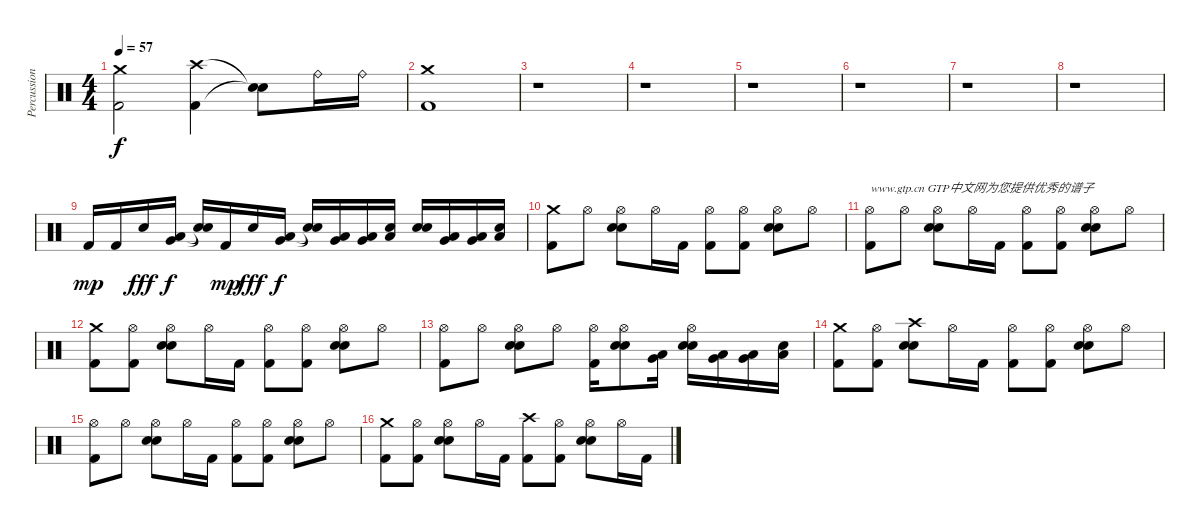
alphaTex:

\track ("Percussion" "Percussion") {instrument percussion}
\staff {score}
\articulation defaults
\ts (4 4)
\tempo 57
\clef neutral
\ks c
("Crash medium (hit)" "Kick (hit) 2").2{dy f} ("Crash high (hit)" "Kick (hit) 2").4 ("Snare (hit)"{t} "Snare (hit)"{t}).8 "Ride (bell)".16 "Ride (bell)".16 |
("Crash medium (hit)" "Kick (hit) 2").1 |
r.1 |
r.1 |
r.1 |
r.1 |
r.1 |
r.1 |
"Kick (hit) 2".16{dy mp} "Kick (hit) 2".16 "Metronome (bell)".16{dy fff} ("Low Tom (hit)" "Very Low Tom (hit)").16{dy f} ("Snare (hit)"{t} "Snare (hit)"{t}).16 "Kick (hit) 2".16{dy mp} "Metronome (bell)".16{dy fff} ("Low Tom (hit)" "Very Low Tom (hit)").16{dy f} ("Snare (hit)"{t} "Snare (hit)"{t}).16 ("Low Tom (hit)" "Very Low Tom (hit)").16 ("Very Low Tom (hit)" "Low Floor Tom (hit)").16 ("Low Floor Tom (hit)" "Snare (hit)").16 ("Electric Snare (hit)" "Metronome (bell)").16 ("Low Tom (hit)" "Very Low Tom (hit)").16 ("Very Low Tom (hit)" "Low Floor Tom (hit)").16 ("Low Floor Tom (hit)" "Snare (hit)").16 |
("Crash medium (hit)" "Kick (hit) 2").8 "Hi-Hat (open)".8 ("Hi-Hat (open)" "Electric Snare (hit)" "Metronome (bell)").8 "Hi-Hat (open)".16 "Kick (hit) 2".16 ("Hi-Hat (open)" "Kick (hit) 2").8 ("Hi-Hat (open)" "Kick (hit) 2").8 ("Hi-Hat (open)" "Electric Snare (hit)" "Metronome (bell)").8 "Hi-Hat (open)".8 |
("Hi-Hat (open)" "Kick (hit) 2").8{txt "www.gtp.cn GTP中文网为您提供优秀的谱子"} "Hi-Hat (open)".8 ("Hi-Hat (open)" "Electric Snare (hit)" "Metronome (bell)").8 "Hi-Hat (open)".16 "Kick (hit) 2".16 ("Hi-Hat (open)" "Kick (hit) 2").8 ("Hi-Hat (open)" "Kick (hit) 2").8 ("Hi-Hat (open)" "Electric Snare (hit)" "Metronome (bell)").8 "Hi-Hat (open)".8 |
("Crash medium (hit)" "Kick (hit) 2").8 ("Hi-Hat (open)" "Kick (hit) 2").8 ("Hi-Hat (open)" "Electric Snare (hit)" "Metronome (bell)").8 "Hi-Hat (open)".16 "Kick (hit) 2".16 ("Hi-Hat (open)" "Kick (hit) 2").8 ("Hi-Hat (open)" "Kick (hit) 2").8 ("Hi-Hat (open)" "Electric Snare (hit)" "Metronome (bell)").8 "Hi-Hat (open)".8 |
("Hi-Hat (open)" "Kick (hit) 2").8 "Hi-Hat (open)".8 ("Hi-Hat (open)" "Electric Snare (hit)" "Metronome (bell)").8 "Hi-Hat (open)".8 ("Hi-Hat (open)" "Kick (hit) 2").16 ("Hi-Hat (open)" "Electric Snare (hit)" "Metronome (bell)").8 ("Very Low Tom (hit)" "Low Floor Tom (hit)").16 ("Hi-Hat (open)" "Electric Snare (hit)" "Metronome (bell)").16 ("Low Tom (hit)" "Very Low Tom (hit)").16 ("Very Low Tom (hit)" "Low Floor Tom (hit)").16 ("Low Floor Tom (hit)" "Snare (hit)").16 |
("Crash medium (hit)" "Kick (hit) 2").8 ("Hi-Hat (open)" "Kick (hit) 2").8 ("Crash high (hit)" "Electric Snare (hit)" "Metronome (bell)").8 "Hi-Hat (open)".16 "Kick (hit) 2".16 ("Hi-Hat (open)" "Kick (hit) 2").8 ("Hi-Hat (open)" "Kick (hit) 2").8 ("Hi-Hat (open)" "Electric Snare (hit)" "Metronome (bell)").8 "Hi-Hat (open)".8 |
("Hi-Hat (open)" "Kick (hit) 2").8 "Hi-Hat (open)".8 ("Hi-Hat (open)" "Electric Snare (hit)" "Metronome (bell)").8 "Hi-Hat (open)".16 "Kick (hit) 2".16 ("Hi-Hat (open)" "Kick (hit) 2").8 ("Hi-Hat (open)" "Kick (hit) 2").8 ("Hi-Hat (open)" "Electric Snare (hit)" "Metronome (bell)").8 "Hi-Hat (open)".8 |
("Crash medium (hit)" "Kick (hit) 2").8 ("Hi-Hat (open)" "Kick (hit) 2").8 ("Hi-Hat (open)" "Electric Snare (hit)" "Metronome (bell)").8 "Hi-Hat (open)".16 "Kick (hit) 2".16 ("Crash high (hit)" "Kick (hit) 2").8 ("Hi-Hat (open)" "Kick (hit) 2").8 ("Hi-Hat (open)" "Electric Snare (hit)" "Metronome (bell)").8 "Hi-Hat (open)".16 "Kick (hit) 2".16
